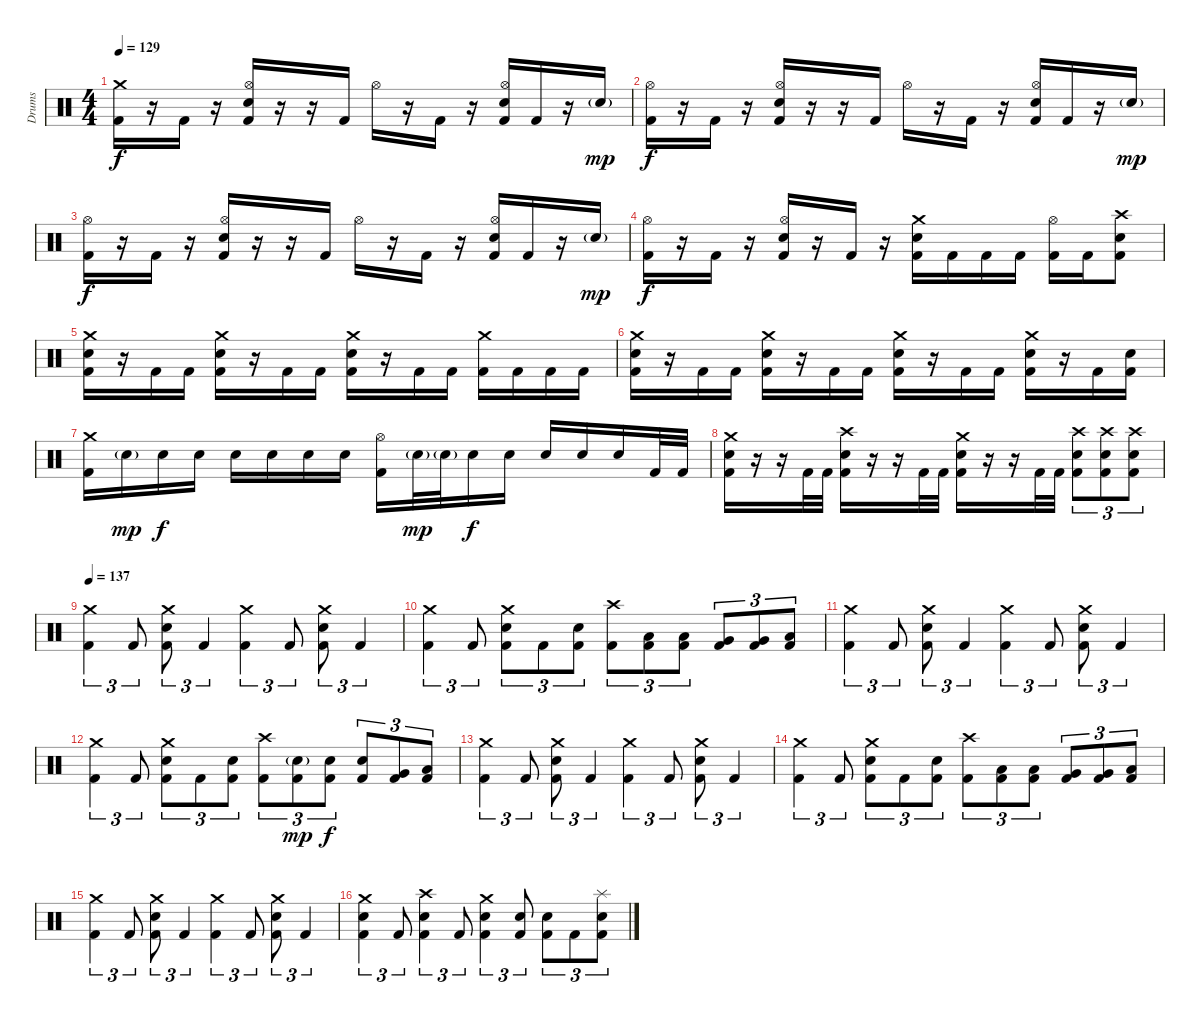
\track ("Drums" "Drums") {instrument percussion}
\staff {score}
\articulation defaults
\ts (4 4)
\tempo 129
\clef neutral
\ks c
("Crash medium (hit)" "Kick (hit) 2").16{dy f} r.16 "Kick (hit) 2".16 r.16 ("Hi-Hat (open)" "Electric Snare (hit)" "Kick (hit) 2").16 r.16 r.16 "Kick (hit) 2".16 "Hi-Hat (open)".16 r.16 "Kick (hit) 2".16 r.16 ("Hi-Hat (open)" "Electric Snare (hit)" "Kick (hit) 2").16 "Kick (hit) 2".16 r.16 "Electric Snare (hit)"{g}.16{dy mp} |
("Hi-Hat (open)" "Kick (hit) 2").16{dy f} r.16 "Kick (hit) 2".16 r.16 ("Hi-Hat (open)" "Electric Snare (hit)" "Kick (hit) 2").16 r.16 r.16 "Kick (hit) 2".16 "Hi-Hat (open)".16 r.16 "Kick (hit) 2".16 r.16 ("Hi-Hat (open)" "Electric Snare (hit)" "Kick (hit) 2").16 "Kick (hit) 2".16 r.16 "Electric Snare (hit)"{g}.16{dy mp} |
("Hi-Hat (open)" "Kick (hit) 2").16{dy f} r.16 "Kick (hit) 2".16 r.16 ("Hi-Hat (open)" "Electric Snare (hit)" "Kick (hit) 2").16 r.16 r.16 "Kick (hit) 2".16 "Hi-Hat (open)".16 r.16 "Kick (hit) 2".16 r.16 ("Hi-Hat (open)" "Electric Snare (hit)" "Kick (hit) 2").16 "Kick (hit) 2".16 r.16 "Electric Snare (hit)"{g}.16{dy mp} |
("Hi-Hat (open)" "Kick (hit) 2").16{dy f} r.16 "Kick (hit) 2".16 r.16 ("Hi-Hat (open)" "Electric Snare (hit)" "Kick (hit) 2").16 r.16 "Kick (hit) 2".16 r.16 ("Crash medium (hit)" "Electric Snare (hit)" "Kick (hit) 2").16 "Kick (hit) 2".16 "Kick (hit) 2".16 "Kick (hit) 2".16 ("Hi-Hat (open)" "Kick (hit) 2").16 "Kick (hit) 2".16 ("Crash high (hit)" "Electric Snare (hit)" "Kick (hit) 2").8 |
("Crash medium (hit)" "Electric Snare (hit)" "Kick (hit) 2").16 r.16 "Kick (hit) 2".16 "Kick (hit) 2".16 ("Crash medium (hit)" "Electric Snare (hit)" "Kick (hit) 2").16 r.16 "Kick (hit) 2".16 "Kick (hit) 2".16 ("Crash medium (hit)" "Electric Snare (hit)" "Kick (hit) 2").16 r.16 "Kick (hit) 2".16 "Kick (hit) 2".16 ("Crash medium (hit)" "Kick (hit) 2").16 "Kick (hit) 2".16 "Kick (hit) 2".16 "Kick (hit) 2".16 |
("Crash medium (hit)" "Electric Snare (hit)" "Kick (hit) 2").16 r.16 "Kick (hit) 2".16 "Kick (hit) 2".16 ("Crash medium (hit)" "Electric Snare (hit)" "Kick (hit) 2").16 r.16 "Kick (hit) 2".16 "Kick (hit) 2".16 ("Crash medium (hit)" "Electric Snare (hit)" "Kick (hit) 2").16 r.16 "Kick (hit) 2".16 "Kick (hit) 2".16 ("Crash medium (hit)" "Electric Snare (hit)" "Kick (hit) 2").16 r.16 "Kick (hit) 2".16 ("Electric Snare (hit)" "Kick (hit) 2").16 |
("Crash medium (hit)" "Kick (hit) 2").16 "Electric Snare (hit)"{g}.16{dy mp} "Electric Snare (hit)".16{dy f} "Electric Snare (hit)".16 "Electric Snare (hit)".16 "Electric Snare (hit)".16 "Electric Snare (hit)".16 "Electric Snare (hit)".16 ("Hi-Hat (open)" "Kick (hit) 2").16 "Electric Snare (hit)"{g}.32{dy mp} "Electric Snare (hit)"{g}.32 "Electric Snare (hit)".16{dy f} "Electric Snare (hit)".16 "Electric Snare (hit)".16 "Electric Snare (hit)".16 "Electric Snare (hit)".16 "Kick (hit) 2".32 "Kick (hit) 2".32 |
("Crash medium (hit)" "Electric Snare (hit)" "Kick (hit) 2").16 r.16 r.16 "Kick (hit) 2".32 "Kick (hit) 2".32 ("Crash high (hit)" "Electric Snare (hit)" "Kick (hit) 2").16 r.16 r.16 "Kick (hit) 2".32 "Kick (hit) 2".32 ("Crash medium (hit)" "Electric Snare (hit)" "Kick (hit) 2").16 r.16 r.16 "Kick (hit) 2".32 "Kick (hit) 2".32 ("Crash high (hit)" "Electric Snare (hit)" "Kick (hit) 2").8{tu (3 2)} ("Crash high (hit)" "Electric Snare (hit)" "Kick (hit) 2").8{tu (3 2)} ("Crash high (hit)" "Electric Snare (hit)" "Kick (hit) 2").8{tu (3 2)} |
\section ("" "")
\tempo 137
("Crash medium (hit)" "Kick (hit) 2").4{tu (3 2)} "Kick (hit) 2".8{tu (3 2)} ("Crash medium (hit)" "Electric Snare (hit)" "Kick (hit) 2").8{tu (3 2)} "Kick (hit) 2".4{tu (3 2)} ("Crash medium (hit)" "Kick (hit) 2").4{tu (3 2)} "Kick (hit) 2".8{tu (3 2)} ("Crash medium (hit)" "Electric Snare (hit)" "Kick (hit) 2").8{tu (3 2)} "Kick (hit) 2".4{tu (3 2)} |
("Crash medium (hit)" "Kick (hit) 2").4{tu (3 2)} "Kick (hit) 2".8{tu (3 2)} ("Crash medium (hit)" "Electric Snare (hit)" "Kick (hit) 2").8{tu (3 2)} "Kick (hit) 2".8{tu (3 2)} ("Electric Snare (hit)" "Kick (hit) 2").8{tu (3 2)} ("Crash high (hit)" "Kick (hit) 2").8{tu (3 2)} ("Low Tom (hit)" "Kick (hit) 2").8{tu (3 2)} ("Low Tom (hit)" "Kick (hit) 2").8{tu (3 2)} ("Very Low Tom (hit)" "Kick (hit) 2").8{tu (3 2)} ("Very Low Tom (hit)" "Kick (hit) 2").8{tu (3 2)} ("Low Floor Tom (hit)" "Kick (hit) 2").8{tu (3 2)} |
("Crash medium (hit)" "Kick (hit) 2").4{tu (3 2)} "Kick (hit) 2".8{tu (3 2)} ("Crash medium (hit)" "Electric Snare (hit)" "Kick (hit) 2").8{tu (3 2)} "Kick (hit) 2".4{tu (3 2)} ("Crash medium (hit)" "Kick (hit) 2").4{tu (3 2)} "Kick (hit) 2".8{tu (3 2)} ("Crash medium (hit)" "Electric Snare (hit)" "Kick (hit) 2").8{tu (3 2)} "Kick (hit) 2".4{tu (3 2)} |
("Crash medium (hit)" "Kick (hit) 2").4{tu (3 2)} "Kick (hit) 2".8{tu (3 2)} ("Crash medium (hit)" "Electric Snare (hit)" "Kick (hit) 2").8{tu (3 2)} "Kick (hit) 2".8{tu (3 2)} ("Electric Snare (hit)" "Kick (hit) 2").8{tu (3 2)} ("Crash high (hit)" "Kick (hit) 2").8{tu (3 2)} ("Electric Snare (hit)"{g} "Kick (hit) 2").8{tu (3 2) dy mp} ("Electric Snare (hit)" "Kick (hit) 2").8{tu (3 2) dy f} ("Electric Snare (hit)" "Kick (hit) 2").8{tu (3 2)} ("Very Low Tom (hit)" "Kick (hit) 2").8{tu (3 2)} ("Low Floor Tom (hit)" "Kick (hit) 2").8{tu (3 2)} |
("Crash medium (hit)" "Kick (hit) 2").4{tu (3 2)} "Kick (hit) 2".8{tu (3 2)} ("Crash medium (hit)" "Electric Snare (hit)" "Kick (hit) 2").8{tu (3 2)} "Kick (hit) 2".4{tu (3 2)} ("Crash medium (hit)" "Kick (hit) 2").4{tu (3 2)} "Kick (hit) 2".8{tu (3 2)} ("Crash medium (hit)" "Electric Snare (hit)" "Kick (hit) 2").8{tu (3 2)} "Kick (hit) 2".4{tu (3 2)} |
("Crash medium (hit)" "Kick (hit) 2").4{tu (3 2)} "Kick (hit) 2".8{tu (3 2)} ("Crash medium (hit)" "Electric Snare (hit)" "Kick (hit) 2").8{tu (3 2)} "Kick (hit) 2".8{tu (3 2)} ("Electric Snare (hit)" "Kick (hit) 2").8{tu (3 2)} ("Crash high (hit)" "Kick (hit) 2").8{tu (3 2)} ("Low Tom (hit)" "Kick (hit) 2").8{tu (3 2)} ("Low Tom (hit)" "Kick (hit) 2").8{tu (3 2)} ("Very Low Tom (hit)" "Kick (hit) 2").8{tu (3 2)} ("Very Low Tom (hit)" "Kick (hit) 2").8{tu (3 2)} ("Low Floor Tom (hit)" "Kick (hit) 2").8{tu (3 2)} |
("Crash medium (hit)" "Kick (hit) 2").4{tu (3 2)} "Kick (hit) 2".8{tu (3 2)} ("Crash medium (hit)" "Electric Snare (hit)" "Kick (hit) 2").8{tu (3 2)} "Kick (hit) 2".4{tu (3 2)} ("Crash medium (hit)" "Kick (hit) 2").4{tu (3 2)} "Kick (hit) 2".8{tu (3 2)} ("Crash medium (hit)" "Electric Snare (hit)" "Kick (hit) 2").8{tu (3 2)} "Kick (hit) 2".4{tu (3 2)} |
("Crash medium (hit)" "Electric Snare (hit)" "Kick (hit) 2").4{tu (3 2)} "Kick (hit) 2".8{tu (3 2)} ("Crash high (hit)" "Electric Snare (hit)" "Kick (hit) 2").4{tu (3 2)} "Kick (hit) 2".8{tu (3 2)} ("Crash medium (hit)" "Electric Snare (hit)" "Kick (hit) 2").4{tu (3 2)} ("Electric Snare (hit)" "Kick (hit) 2").8{tu (3 2)} ("Electric Snare (hit)" "Kick (hit) 2").8{tu (3 2)} "Kick (hit) 2".8{tu (3 2)} ("Splash (hit)" "Electric Snare (hit)" "Kick (hit) 2").8{tu (3 2)}
